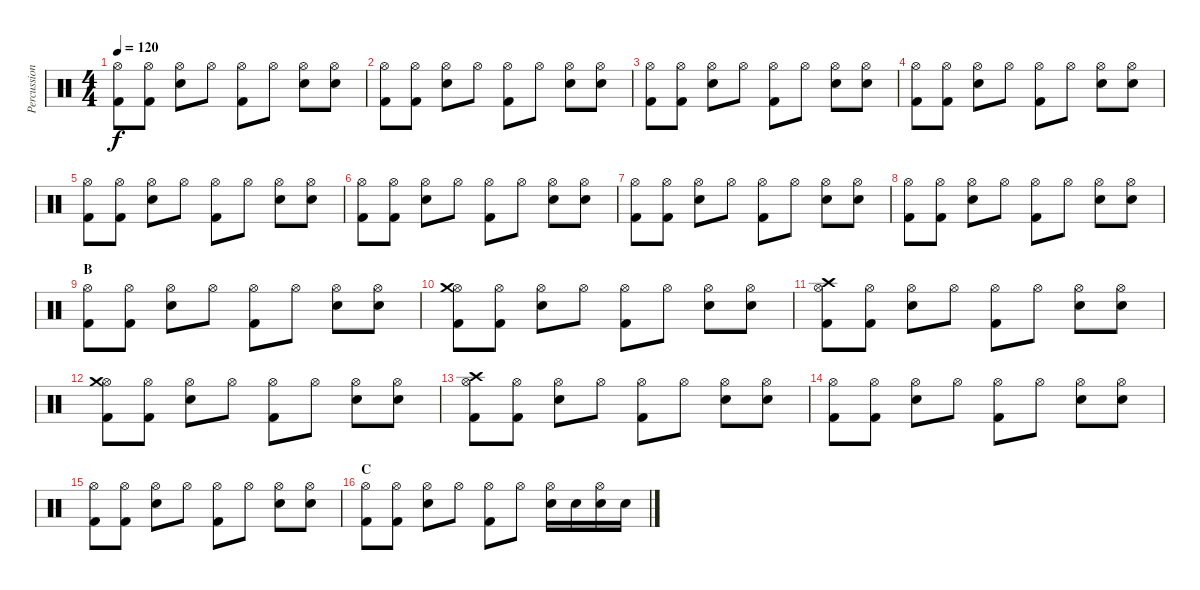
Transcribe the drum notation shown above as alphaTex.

\track ("Percussion" "Percussion") {instrument percussion}
\staff {score}
\articulation defaults
\ts (4 4)
\tempo 120
\clef neutral
\ks c
("Kick (hit) 2" "Hi-Hat (open)").8{dy f} ("Kick (hit) 2" "Hi-Hat (open)").8 ("Snare (hit) 2" "Hi-Hat (open)").8 "Hi-Hat (open)".8 ("Kick (hit) 2" "Hi-Hat (open)").8 "Hi-Hat (open)".8 ("Snare (hit) 2" "Hi-Hat (open)").8 ("Snare (hit) 2" "Hi-Hat (open)").8 |
("Kick (hit) 2" "Hi-Hat (open)").8 ("Kick (hit) 2" "Hi-Hat (open)").8 ("Snare (hit) 2" "Hi-Hat (open)").8 "Hi-Hat (open)".8 ("Kick (hit) 2" "Hi-Hat (open)").8 "Hi-Hat (open)".8 ("Snare (hit) 2" "Hi-Hat (open)").8 ("Snare (hit) 2" "Hi-Hat (open)").8 |
("Kick (hit) 2" "Hi-Hat (open)").8 ("Kick (hit) 2" "Hi-Hat (open)").8 ("Snare (hit) 2" "Hi-Hat (open)").8 "Hi-Hat (open)".8 ("Kick (hit) 2" "Hi-Hat (open)").8 "Hi-Hat (open)".8 ("Snare (hit) 2" "Hi-Hat (open)").8 ("Snare (hit) 2" "Hi-Hat (open)").8 |
("Kick (hit) 2" "Hi-Hat (open)").8 ("Kick (hit) 2" "Hi-Hat (open)").8 ("Snare (hit) 2" "Hi-Hat (open)").8 "Hi-Hat (open)".8 ("Kick (hit) 2" "Hi-Hat (open)").8 "Hi-Hat (open)".8 ("Snare (hit) 2" "Hi-Hat (open)").8 ("Snare (hit) 2" "Hi-Hat (open)").8 |
("Kick (hit) 2" "Hi-Hat (open)").8 ("Kick (hit) 2" "Hi-Hat (open)").8 ("Snare (hit) 2" "Hi-Hat (open)").8 "Hi-Hat (open)".8 ("Kick (hit) 2" "Hi-Hat (open)").8 "Hi-Hat (open)".8 ("Snare (hit) 2" "Hi-Hat (open)").8 ("Snare (hit) 2" "Hi-Hat (open)").8 |
("Kick (hit) 2" "Hi-Hat (open)").8 ("Kick (hit) 2" "Hi-Hat (open)").8 ("Snare (hit) 2" "Hi-Hat (open)").8 "Hi-Hat (open)".8 ("Kick (hit) 2" "Hi-Hat (open)").8 "Hi-Hat (open)".8 ("Snare (hit) 2" "Hi-Hat (open)").8 ("Snare (hit) 2" "Hi-Hat (open)").8 |
("Kick (hit) 2" "Hi-Hat (open)").8 ("Kick (hit) 2" "Hi-Hat (open)").8 ("Snare (hit) 2" "Hi-Hat (open)").8 "Hi-Hat (open)".8 ("Kick (hit) 2" "Hi-Hat (open)").8 "Hi-Hat (open)".8 ("Snare (hit) 2" "Hi-Hat (open)").8 ("Snare (hit) 2" "Hi-Hat (open)").8 |
("Kick (hit) 2" "Hi-Hat (open)").8 ("Kick (hit) 2" "Hi-Hat (open)").8 ("Snare (hit) 2" "Hi-Hat (open)").8 "Hi-Hat (open)".8 ("Kick (hit) 2" "Hi-Hat (open)").8 "Hi-Hat (open)".8 ("Snare (hit) 2" "Hi-Hat (open)").8 ("Snare (hit) 2" "Hi-Hat (open)").8 |
\section ("" "B")
("Kick (hit) 2" "Hi-Hat (open)").8 ("Kick (hit) 2" "Hi-Hat (open)").8 ("Snare (hit) 2" "Hi-Hat (open)").8 "Hi-Hat (open)".8 ("Kick (hit) 2" "Hi-Hat (open)").8 "Hi-Hat (open)".8 ("Snare (hit) 2" "Hi-Hat (open)").8 ("Snare (hit) 2" "Hi-Hat (open)").8 |
("Kick (hit) 2" "Hi-Hat (open)" "Crash medium (hit)").8 ("Kick (hit) 2" "Hi-Hat (open)").8 ("Snare (hit) 2" "Hi-Hat (open)").8 "Hi-Hat (open)".8 ("Kick (hit) 2" "Hi-Hat (open)").8 "Hi-Hat (open)".8 ("Snare (hit) 2" "Hi-Hat (open)").8 ("Snare (hit) 2" "Hi-Hat (open)").8 |
("Kick (hit) 2" "Hi-Hat (open)" "Crash high (hit)").8 ("Kick (hit) 2" "Hi-Hat (open)").8 ("Snare (hit) 2" "Hi-Hat (open)").8 "Hi-Hat (open)".8 ("Kick (hit) 2" "Hi-Hat (open)").8 "Hi-Hat (open)".8 ("Snare (hit) 2" "Hi-Hat (open)").8 ("Snare (hit) 2" "Hi-Hat (open)").8 |
("Kick (hit) 2" "Hi-Hat (open)" "Crash medium (hit)").8 ("Kick (hit) 2" "Hi-Hat (open)").8 ("Snare (hit) 2" "Hi-Hat (open)").8 "Hi-Hat (open)".8 ("Kick (hit) 2" "Hi-Hat (open)").8 "Hi-Hat (open)".8 ("Snare (hit) 2" "Hi-Hat (open)").8 ("Snare (hit) 2" "Hi-Hat (open)").8 |
("Kick (hit) 2" "Hi-Hat (open)" "Crash high (hit)").8 ("Kick (hit) 2" "Hi-Hat (open)").8 ("Snare (hit) 2" "Hi-Hat (open)").8 "Hi-Hat (open)".8 ("Kick (hit) 2" "Hi-Hat (open)").8 "Hi-Hat (open)".8 ("Snare (hit) 2" "Hi-Hat (open)").8 ("Snare (hit) 2" "Hi-Hat (open)").8 |
("Kick (hit) 2" "Hi-Hat (open)").8 ("Kick (hit) 2" "Hi-Hat (open)").8 ("Snare (hit) 2" "Hi-Hat (open)").8 "Hi-Hat (open)".8 ("Kick (hit) 2" "Hi-Hat (open)").8 "Hi-Hat (open)".8 ("Snare (hit) 2" "Hi-Hat (open)").8 ("Snare (hit) 2" "Hi-Hat (open)").8 |
("Kick (hit) 2" "Hi-Hat (open)").8 ("Kick (hit) 2" "Hi-Hat (open)").8 ("Snare (hit) 2" "Hi-Hat (open)").8 "Hi-Hat (open)".8 ("Kick (hit) 2" "Hi-Hat (open)").8 "Hi-Hat (open)".8 ("Snare (hit) 2" "Hi-Hat (open)").8 ("Snare (hit) 2" "Hi-Hat (open)").8 |
\section ("" "C")
("Kick (hit) 2" "Hi-Hat (open)").8 ("Kick (hit) 2" "Hi-Hat (open)").8 ("Snare (hit) 2" "Hi-Hat (open)").8 "Hi-Hat (open)".8 ("Kick (hit) 2" "Hi-Hat (open)").8 "Hi-Hat (open)".8 ("Snare (hit) 2" "Hi-Hat (open)").16 "Snare (hit) 2".16 ("Snare (hit) 2" "Hi-Hat (open)").16 "Snare (hit) 2".16
